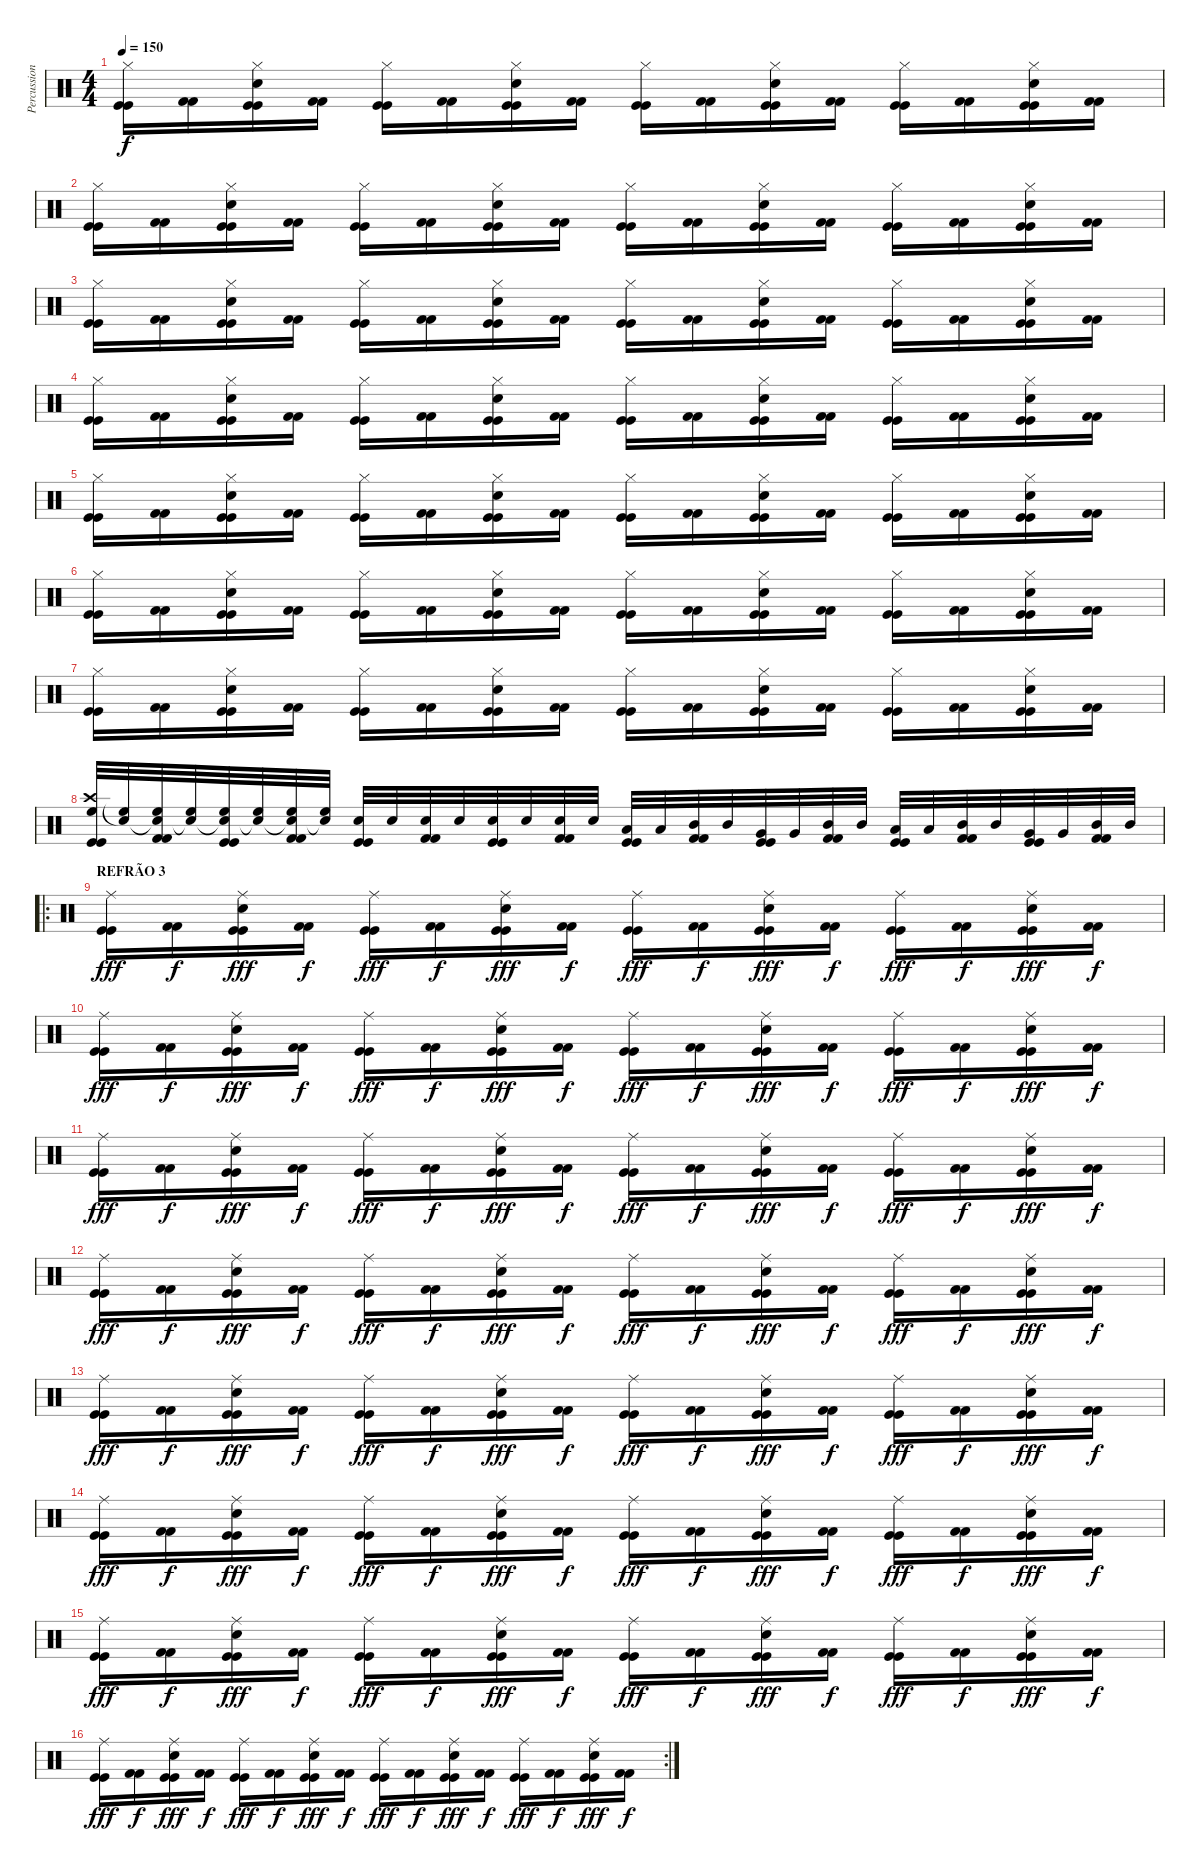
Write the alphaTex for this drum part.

\track ("Percussion" "Percussion") {instrument percussion}
\staff {score}
\articulation defaults
\ts (4 4)
\tempo 150
\clef neutral
\ks c
("Hi-Hat (closed)" "Kick (hit)" "Kick (hit)").16{dy f} ("Kick (hit) 2" "Kick (hit) 2").16 ("Hi-Hat (closed)" "Electric Snare (hit)" "Kick (hit)" "Kick (hit)").16 ("Kick (hit) 2" "Kick (hit) 2").16 ("Hi-Hat (closed)" "Kick (hit)" "Kick (hit)").16 ("Kick (hit) 2" "Kick (hit) 2").16 ("Hi-Hat (closed)" "Electric Snare (hit)" "Kick (hit)" "Kick (hit)").16 ("Kick (hit) 2" "Kick (hit) 2").16 ("Hi-Hat (closed)" "Kick (hit)" "Kick (hit)").16 ("Kick (hit) 2" "Kick (hit) 2").16 ("Hi-Hat (closed)" "Electric Snare (hit)" "Kick (hit)" "Kick (hit)").16 ("Kick (hit) 2" "Kick (hit) 2").16 ("Hi-Hat (closed)" "Kick (hit)" "Kick (hit)").16 ("Kick (hit) 2" "Kick (hit) 2").16 ("Hi-Hat (closed)" "Electric Snare (hit)" "Kick (hit)" "Kick (hit)").16 ("Kick (hit) 2" "Kick (hit) 2").16 |
("Hi-Hat (closed)" "Kick (hit)" "Kick (hit)").16 ("Kick (hit) 2" "Kick (hit) 2").16 ("Hi-Hat (closed)" "Electric Snare (hit)" "Kick (hit)" "Kick (hit)").16 ("Kick (hit) 2" "Kick (hit) 2").16 ("Hi-Hat (closed)" "Kick (hit)" "Kick (hit)").16 ("Kick (hit) 2" "Kick (hit) 2").16 ("Hi-Hat (closed)" "Electric Snare (hit)" "Kick (hit)" "Kick (hit)").16 ("Kick (hit) 2" "Kick (hit) 2").16 ("Hi-Hat (closed)" "Kick (hit)" "Kick (hit)").16 ("Kick (hit) 2" "Kick (hit) 2").16 ("Hi-Hat (closed)" "Electric Snare (hit)" "Kick (hit)" "Kick (hit)").16 ("Kick (hit) 2" "Kick (hit) 2").16 ("Hi-Hat (closed)" "Kick (hit)" "Kick (hit)").16 ("Kick (hit) 2" "Kick (hit) 2").16 ("Hi-Hat (closed)" "Electric Snare (hit)" "Kick (hit)" "Kick (hit)").16 ("Kick (hit) 2" "Kick (hit) 2").16 |
("Hi-Hat (closed)" "Kick (hit)" "Kick (hit)").16 ("Kick (hit) 2" "Kick (hit) 2").16 ("Hi-Hat (closed)" "Electric Snare (hit)" "Kick (hit)" "Kick (hit)").16 ("Kick (hit) 2" "Kick (hit) 2").16 ("Hi-Hat (closed)" "Kick (hit)" "Kick (hit)").16 ("Kick (hit) 2" "Kick (hit) 2").16 ("Hi-Hat (closed)" "Electric Snare (hit)" "Kick (hit)" "Kick (hit)").16 ("Kick (hit) 2" "Kick (hit) 2").16 ("Hi-Hat (closed)" "Kick (hit)" "Kick (hit)").16 ("Kick (hit) 2" "Kick (hit) 2").16 ("Hi-Hat (closed)" "Electric Snare (hit)" "Kick (hit)" "Kick (hit)").16 ("Kick (hit) 2" "Kick (hit) 2").16 ("Hi-Hat (closed)" "Kick (hit)" "Kick (hit)").16 ("Kick (hit) 2" "Kick (hit) 2").16 ("Hi-Hat (closed)" "Electric Snare (hit)" "Kick (hit)" "Kick (hit)").16 ("Kick (hit) 2" "Kick (hit) 2").16 |
("Hi-Hat (closed)" "Kick (hit)" "Kick (hit)").16 ("Kick (hit) 2" "Kick (hit) 2").16 ("Hi-Hat (closed)" "Electric Snare (hit)" "Kick (hit)" "Kick (hit)").16 ("Kick (hit) 2" "Kick (hit) 2").16 ("Hi-Hat (closed)" "Kick (hit)" "Kick (hit)").16 ("Kick (hit) 2" "Kick (hit) 2").16 ("Hi-Hat (closed)" "Electric Snare (hit)" "Kick (hit)" "Kick (hit)").16 ("Kick (hit) 2" "Kick (hit) 2").16 ("Hi-Hat (closed)" "Kick (hit)" "Kick (hit)").16 ("Kick (hit) 2" "Kick (hit) 2").16 ("Hi-Hat (closed)" "Electric Snare (hit)" "Kick (hit)" "Kick (hit)").16 ("Kick (hit) 2" "Kick (hit) 2").16 ("Hi-Hat (closed)" "Kick (hit)" "Kick (hit)").16 ("Kick (hit) 2" "Kick (hit) 2").16 ("Hi-Hat (closed)" "Electric Snare (hit)" "Kick (hit)" "Kick (hit)").16 ("Kick (hit) 2" "Kick (hit) 2").16 |
("Hi-Hat (closed)" "Kick (hit)" "Kick (hit)").16 ("Kick (hit) 2" "Kick (hit) 2").16 ("Hi-Hat (closed)" "Electric Snare (hit)" "Kick (hit)" "Kick (hit)").16 ("Kick (hit) 2" "Kick (hit) 2").16 ("Hi-Hat (closed)" "Kick (hit)" "Kick (hit)").16 ("Kick (hit) 2" "Kick (hit) 2").16 ("Hi-Hat (closed)" "Electric Snare (hit)" "Kick (hit)" "Kick (hit)").16 ("Kick (hit) 2" "Kick (hit) 2").16 ("Hi-Hat (closed)" "Kick (hit)" "Kick (hit)").16 ("Kick (hit) 2" "Kick (hit) 2").16 ("Hi-Hat (closed)" "Electric Snare (hit)" "Kick (hit)" "Kick (hit)").16 ("Kick (hit) 2" "Kick (hit) 2").16 ("Hi-Hat (closed)" "Kick (hit)" "Kick (hit)").16 ("Kick (hit) 2" "Kick (hit) 2").16 ("Hi-Hat (closed)" "Electric Snare (hit)" "Kick (hit)" "Kick (hit)").16 ("Kick (hit) 2" "Kick (hit) 2").16 |
("Hi-Hat (closed)" "Kick (hit)" "Kick (hit)").16 ("Kick (hit) 2" "Kick (hit) 2").16 ("Hi-Hat (closed)" "Electric Snare (hit)" "Kick (hit)" "Kick (hit)").16 ("Kick (hit) 2" "Kick (hit) 2").16 ("Hi-Hat (closed)" "Kick (hit)" "Kick (hit)").16 ("Kick (hit) 2" "Kick (hit) 2").16 ("Hi-Hat (closed)" "Electric Snare (hit)" "Kick (hit)" "Kick (hit)").16 ("Kick (hit) 2" "Kick (hit) 2").16 ("Hi-Hat (closed)" "Kick (hit)" "Kick (hit)").16 ("Kick (hit) 2" "Kick (hit) 2").16 ("Hi-Hat (closed)" "Electric Snare (hit)" "Kick (hit)" "Kick (hit)").16 ("Kick (hit) 2" "Kick (hit) 2").16 ("Hi-Hat (closed)" "Kick (hit)" "Kick (hit)").16 ("Kick (hit) 2" "Kick (hit) 2").16 ("Hi-Hat (closed)" "Electric Snare (hit)" "Kick (hit)" "Kick (hit)").16 ("Kick (hit) 2" "Kick (hit) 2").16 |
("Hi-Hat (closed)" "Kick (hit)" "Kick (hit)").16 ("Kick (hit) 2" "Kick (hit) 2").16 ("Hi-Hat (closed)" "Electric Snare (hit)" "Kick (hit)" "Kick (hit)").16 ("Kick (hit) 2" "Kick (hit) 2").16 ("Hi-Hat (closed)" "Kick (hit)" "Kick (hit)").16 ("Kick (hit) 2" "Kick (hit) 2").16 ("Hi-Hat (closed)" "Electric Snare (hit)" "Kick (hit)" "Kick (hit)").16 ("Kick (hit) 2" "Kick (hit) 2").16 ("Hi-Hat (closed)" "Kick (hit)" "Kick (hit)").16 ("Kick (hit) 2" "Kick (hit) 2").16 ("Hi-Hat (closed)" "Electric Snare (hit)" "Kick (hit)" "Kick (hit)").16 ("Kick (hit) 2" "Kick (hit) 2").16 ("Hi-Hat (closed)" "Kick (hit)" "Kick (hit)").16 ("Kick (hit) 2" "Kick (hit) 2").16 ("Hi-Hat (closed)" "Electric Snare (hit)" "Kick (hit)" "Kick (hit)").16 ("Kick (hit) 2" "Kick (hit) 2").16 |
("Crash high (hit)" "High Floor Tom (hit)" "Kick (hit)" "Kick (hit)").32 ("Snare (hit)"{t} "High Floor Tom (hit)").32 ("Snare (hit)"{t} "High Floor Tom (hit)" "Kick (hit) 2" "Kick (hit) 2").32 ("Snare (hit)"{t} "High Floor Tom (hit)").32 ("Snare (hit)"{t} "High Floor Tom (hit)" "Kick (hit)" "Kick (hit)").32 ("Snare (hit)"{t} "High Floor Tom (hit)").32 ("Snare (hit)"{t} "High Floor Tom (hit)" "Kick (hit) 2" "Kick (hit) 2").32 ("Snare (hit)"{t} "High Floor Tom (hit)").32 ("Snare (hit) 2" "Kick (hit)" "Kick (hit)").32 "Snare (hit) 2".32 ("Snare (hit) 2" "Kick (hit) 2" "Kick (hit) 2").32 "Snare (hit) 2".32 ("Snare (hit) 2" "Kick (hit)" "Kick (hit)").32 "Snare (hit) 2".32 ("Snare (hit) 2" "Kick (hit) 2" "Kick (hit) 2").32 "Snare (hit) 2".32 ("Low Tom (hit)" "Kick (hit)" "Kick (hit)").32 "Low Tom (hit)".32 ("Mid Tom (hit)" "Kick (hit) 2" "Kick (hit) 2").32 "Mid Tom (hit)".32 ("Very Low Tom (hit)" "Kick (hit)" "Kick (hit)").32 "Very Low Tom (hit)".32 ("Mid Tom (hit)" "Kick (hit) 2" "Kick (hit) 2").32 "Mid Tom (hit)".32 ("Low Tom (hit)" "Kick (hit)" "Kick (hit)").32 "Low Tom (hit)".32 ("Mid Tom (hit)" "Kick (hit) 2" "Kick (hit) 2").32 "Mid Tom (hit)".32 ("Very Low Tom (hit)" "Kick (hit)" "Kick (hit)").32 "Very Low Tom (hit)".32 ("Mid Tom (hit)" "Kick (hit) 2" "Kick (hit) 2").32 "Mid Tom (hit)".32 |
\ro
\section ("" "REFRÃO 3")
("Ride (middle)" "Kick (hit)" "Kick (hit)").16{dy fff} ("Kick (hit) 2" "Kick (hit) 2").16{dy f} ("Ride (middle)" "Electric Snare (hit)" "Kick (hit)" "Kick (hit)").16{dy fff} ("Kick (hit) 2" "Kick (hit) 2").16{dy f} ("Ride (middle)" "Kick (hit)" "Kick (hit)").16{dy fff} ("Kick (hit) 2" "Kick (hit) 2").16{dy f} ("Ride (middle)" "Electric Snare (hit)" "Kick (hit)" "Kick (hit)").16{dy fff} ("Kick (hit) 2" "Kick (hit) 2").16{dy f} ("Ride (middle)" "Kick (hit)" "Kick (hit)").16{dy fff} ("Kick (hit) 2" "Kick (hit) 2").16{dy f} ("Ride (middle)" "Electric Snare (hit)" "Kick (hit)" "Kick (hit)").16{dy fff} ("Kick (hit) 2" "Kick (hit) 2").16{dy f} ("Ride (middle)" "Kick (hit)" "Kick (hit)").16{dy fff} ("Kick (hit) 2" "Kick (hit) 2").16{dy f} ("Ride (middle)" "Electric Snare (hit)" "Kick (hit)" "Kick (hit)").16{dy fff} ("Kick (hit) 2" "Kick (hit) 2").16{dy f} |
("Ride (middle)" "Kick (hit)" "Kick (hit)").16{dy fff} ("Kick (hit) 2" "Kick (hit) 2").16{dy f} ("Ride (middle)" "Electric Snare (hit)" "Kick (hit)" "Kick (hit)").16{dy fff} ("Kick (hit) 2" "Kick (hit) 2").16{dy f} ("Ride (middle)" "Kick (hit)" "Kick (hit)").16{dy fff} ("Kick (hit) 2" "Kick (hit) 2").16{dy f} ("Ride (middle)" "Electric Snare (hit)" "Kick (hit)" "Kick (hit)").16{dy fff} ("Kick (hit) 2" "Kick (hit) 2").16{dy f} ("Ride (middle)" "Kick (hit)" "Kick (hit)").16{dy fff} ("Kick (hit) 2" "Kick (hit) 2").16{dy f} ("Ride (middle)" "Electric Snare (hit)" "Kick (hit)" "Kick (hit)").16{dy fff} ("Kick (hit) 2" "Kick (hit) 2").16{dy f} ("Ride (middle)" "Kick (hit)" "Kick (hit)").16{dy fff} ("Kick (hit) 2" "Kick (hit) 2").16{dy f} ("Ride (middle)" "Electric Snare (hit)" "Kick (hit)" "Kick (hit)").16{dy fff} ("Kick (hit) 2" "Kick (hit) 2").16{dy f} |
("Ride (middle)" "Kick (hit)" "Kick (hit)").16{dy fff} ("Kick (hit) 2" "Kick (hit) 2").16{dy f} ("Ride (middle)" "Electric Snare (hit)" "Kick (hit)" "Kick (hit)").16{dy fff} ("Kick (hit) 2" "Kick (hit) 2").16{dy f} ("Ride (middle)" "Kick (hit)" "Kick (hit)").16{dy fff} ("Kick (hit) 2" "Kick (hit) 2").16{dy f} ("Ride (middle)" "Electric Snare (hit)" "Kick (hit)" "Kick (hit)").16{dy fff} ("Kick (hit) 2" "Kick (hit) 2").16{dy f} ("Ride (middle)" "Kick (hit)" "Kick (hit)").16{dy fff} ("Kick (hit) 2" "Kick (hit) 2").16{dy f} ("Ride (middle)" "Electric Snare (hit)" "Kick (hit)" "Kick (hit)").16{dy fff} ("Kick (hit) 2" "Kick (hit) 2").16{dy f} ("Ride (middle)" "Kick (hit)" "Kick (hit)").16{dy fff} ("Kick (hit) 2" "Kick (hit) 2").16{dy f} ("Ride (middle)" "Electric Snare (hit)" "Kick (hit)" "Kick (hit)").16{dy fff} ("Kick (hit) 2" "Kick (hit) 2").16{dy f} |
("Ride (middle)" "Kick (hit)" "Kick (hit)").16{dy fff} ("Kick (hit) 2" "Kick (hit) 2").16{dy f} ("Ride (middle)" "Electric Snare (hit)" "Kick (hit)" "Kick (hit)").16{dy fff} ("Kick (hit) 2" "Kick (hit) 2").16{dy f} ("Ride (middle)" "Kick (hit)" "Kick (hit)").16{dy fff} ("Kick (hit) 2" "Kick (hit) 2").16{dy f} ("Ride (middle)" "Electric Snare (hit)" "Kick (hit)" "Kick (hit)").16{dy fff} ("Kick (hit) 2" "Kick (hit) 2").16{dy f} ("Ride (middle)" "Kick (hit)" "Kick (hit)").16{dy fff} ("Kick (hit) 2" "Kick (hit) 2").16{dy f} ("Ride (middle)" "Electric Snare (hit)" "Kick (hit)" "Kick (hit)").16{dy fff} ("Kick (hit) 2" "Kick (hit) 2").16{dy f} ("Ride (middle)" "Kick (hit)" "Kick (hit)").16{dy fff} ("Kick (hit) 2" "Kick (hit) 2").16{dy f} ("Ride (middle)" "Electric Snare (hit)" "Kick (hit)" "Kick (hit)").16{dy fff} ("Kick (hit) 2" "Kick (hit) 2").16{dy f} |
("Ride (middle)" "Kick (hit)" "Kick (hit)").16{dy fff} ("Kick (hit) 2" "Kick (hit) 2").16{dy f} ("Ride (middle)" "Electric Snare (hit)" "Kick (hit)" "Kick (hit)").16{dy fff} ("Kick (hit) 2" "Kick (hit) 2").16{dy f} ("Ride (middle)" "Kick (hit)" "Kick (hit)").16{dy fff} ("Kick (hit) 2" "Kick (hit) 2").16{dy f} ("Ride (middle)" "Electric Snare (hit)" "Kick (hit)" "Kick (hit)").16{dy fff} ("Kick (hit) 2" "Kick (hit) 2").16{dy f} ("Ride (middle)" "Kick (hit)" "Kick (hit)").16{dy fff} ("Kick (hit) 2" "Kick (hit) 2").16{dy f} ("Ride (middle)" "Electric Snare (hit)" "Kick (hit)" "Kick (hit)").16{dy fff} ("Kick (hit) 2" "Kick (hit) 2").16{dy f} ("Ride (middle)" "Kick (hit)" "Kick (hit)").16{dy fff} ("Kick (hit) 2" "Kick (hit) 2").16{dy f} ("Ride (middle)" "Electric Snare (hit)" "Kick (hit)" "Kick (hit)").16{dy fff} ("Kick (hit) 2" "Kick (hit) 2").16{dy f} |
("Ride (middle)" "Kick (hit)" "Kick (hit)").16{dy fff} ("Kick (hit) 2" "Kick (hit) 2").16{dy f} ("Ride (middle)" "Electric Snare (hit)" "Kick (hit)" "Kick (hit)").16{dy fff} ("Kick (hit) 2" "Kick (hit) 2").16{dy f} ("Ride (middle)" "Kick (hit)" "Kick (hit)").16{dy fff} ("Kick (hit) 2" "Kick (hit) 2").16{dy f} ("Ride (middle)" "Electric Snare (hit)" "Kick (hit)" "Kick (hit)").16{dy fff} ("Kick (hit) 2" "Kick (hit) 2").16{dy f} ("Ride (middle)" "Kick (hit)" "Kick (hit)").16{dy fff} ("Kick (hit) 2" "Kick (hit) 2").16{dy f} ("Ride (middle)" "Electric Snare (hit)" "Kick (hit)" "Kick (hit)").16{dy fff} ("Kick (hit) 2" "Kick (hit) 2").16{dy f} ("Ride (middle)" "Kick (hit)" "Kick (hit)").16{dy fff} ("Kick (hit) 2" "Kick (hit) 2").16{dy f} ("Ride (middle)" "Electric Snare (hit)" "Kick (hit)" "Kick (hit)").16{dy fff} ("Kick (hit) 2" "Kick (hit) 2").16{dy f} |
("Ride (middle)" "Kick (hit)" "Kick (hit)").16{dy fff} ("Kick (hit) 2" "Kick (hit) 2").16{dy f} ("Ride (middle)" "Electric Snare (hit)" "Kick (hit)" "Kick (hit)").16{dy fff} ("Kick (hit) 2" "Kick (hit) 2").16{dy f} ("Ride (middle)" "Kick (hit)" "Kick (hit)").16{dy fff} ("Kick (hit) 2" "Kick (hit) 2").16{dy f} ("Ride (middle)" "Electric Snare (hit)" "Kick (hit)" "Kick (hit)").16{dy fff} ("Kick (hit) 2" "Kick (hit) 2").16{dy f} ("Ride (middle)" "Kick (hit)" "Kick (hit)").16{dy fff} ("Kick (hit) 2" "Kick (hit) 2").16{dy f} ("Ride (middle)" "Electric Snare (hit)" "Kick (hit)" "Kick (hit)").16{dy fff} ("Kick (hit) 2" "Kick (hit) 2").16{dy f} ("Ride (middle)" "Kick (hit)" "Kick (hit)").16{dy fff} ("Kick (hit) 2" "Kick (hit) 2").16{dy f} ("Ride (middle)" "Electric Snare (hit)" "Kick (hit)" "Kick (hit)").16{dy fff} ("Kick (hit) 2" "Kick (hit) 2").16{dy f} |
\rc 2
("Ride (middle)" "Kick (hit)" "Kick (hit)").16{dy fff} ("Kick (hit) 2" "Kick (hit) 2").16{dy f} ("Ride (middle)" "Electric Snare (hit)" "Kick (hit)" "Kick (hit)").16{dy fff} ("Kick (hit) 2" "Kick (hit) 2").16{dy f} ("Ride (middle)" "Kick (hit)" "Kick (hit)").16{dy fff} ("Kick (hit) 2" "Kick (hit) 2").16{dy f} ("Ride (middle)" "Electric Snare (hit)" "Kick (hit)" "Kick (hit)").16{dy fff} ("Kick (hit) 2" "Kick (hit) 2").16{dy f} ("Ride (middle)" "Kick (hit)" "Kick (hit)").16{dy fff} ("Kick (hit) 2" "Kick (hit) 2").16{dy f} ("Ride (middle)" "Electric Snare (hit)" "Kick (hit)" "Kick (hit)").16{dy fff} ("Kick (hit) 2" "Kick (hit) 2").16{dy f} ("Ride (middle)" "Kick (hit)" "Kick (hit)").16{dy fff} ("Kick (hit) 2" "Kick (hit) 2").16{dy f} ("Ride (middle)" "Electric Snare (hit)" "Kick (hit)" "Kick (hit)").16{dy fff} ("Kick (hit) 2" "Kick (hit) 2").16{dy f}
